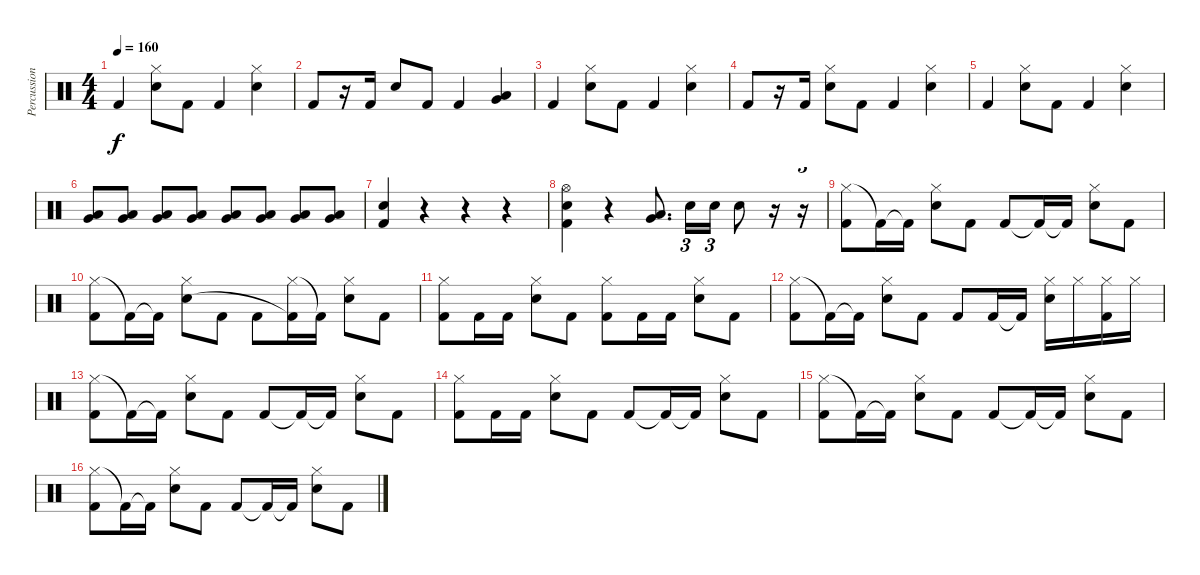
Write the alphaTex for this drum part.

\track ("Percussion" "Percussion") {instrument percussion}
\staff {score}
\articulation defaults
\ts (4 4)
\tempo 160
\clef neutral
\ks c "Kick (hit) 2".4{dy f}
("Hi-Hat (closed)" "Snare (hit) 2").8 "Kick (hit) 2".8 "Kick (hit) 2".4 ("Hi-Hat (closed)" "Snare (hit) 2").4 |
"Kick (hit) 2".8 r.16 "Kick (hit) 2".16 "Snare (hit) 2".8 "Kick (hit) 2".8 "Kick (hit) 2".4 ("Low Tom (hit)" "Very Low Tom (hit)").4 |
"Kick (hit) 2".4 ("Hi-Hat (closed)" "Snare (hit) 2").8 "Kick (hit) 2".8 "Kick (hit) 2".4 ("Hi-Hat (closed)" "Snare (hit) 2").4 |
"Kick (hit) 2".8 r.16 "Kick (hit) 2".16 ("Hi-Hat (closed)" "Snare (hit) 2").8 "Kick (hit) 2".8 "Kick (hit) 2".4 ("Hi-Hat (closed)" "Snare (hit) 2").4 |
"Kick (hit) 2".4 ("Hi-Hat (closed)" "Snare (hit) 2").8 "Kick (hit) 2".8 "Kick (hit) 2".4 ("Hi-Hat (closed)" "Snare (hit) 2").4 |
("Very Low Tom (hit)" "Low Floor Tom (hit)").8 ("Very Low Tom (hit)" "Low Floor Tom (hit)").8 ("Very Low Tom (hit)" "Low Floor Tom (hit)").8 ("Very Low Tom (hit)" "Low Floor Tom (hit)").8 ("Very Low Tom (hit)" "Low Floor Tom (hit)").8 ("Very Low Tom (hit)" "Low Floor Tom (hit)").8 ("Very Low Tom (hit)" "Low Floor Tom (hit)").8 ("Very Low Tom (hit)" "Low Floor Tom (hit)").8 |
("Kick (hit) 2" "Snare (hit) 2").4 r.4 r.4 r.4 |
("Hi-Hat (open)" "Kick (hit) 2" "Snare (hit) 2").4 r.4 ("Very Low Tom (hit)" "Low Floor Tom (hit)").8{d} "Snare (hit) 2".16{tu (3 2)} "Snare (hit) 2".16{tu (3 2)} "Snare (hit) 2".8 r.16 r.16{tu (3 2)} |
("Hi-Hat (closed)" "Kick (hit) 2").8 "Kick (hit) 2"{t}.16 "Kick (hit) 2"{t}.16 ("Hi-Hat (closed)" "Snare (hit) 2").8 "Kick (hit) 2".8 "Kick (hit) 2".8 "Kick (hit) 2"{t}.16 "Kick (hit) 2"{t}.16 ("Hi-Hat (closed)" "Snare (hit) 2").8 "Kick (hit) 2".8 |
("Hi-Hat (closed)" "Kick (hit) 2").8 "Kick (hit) 2"{t}.16 "Kick (hit) 2"{t}.16 ("Hi-Hat (closed)" "Snare (hit) 2").8 "Kick (hit) 2".8 "Kick (hit) 2".8 ("Hi-Hat (closed)" "Kick (hit) 2"{t}).16 "Kick (hit) 2"{t}.16 ("Hi-Hat (closed)" "Snare (hit) 2").8 "Kick (hit) 2".8 |
("Hi-Hat (closed)" "Kick (hit) 2").8 "Kick (hit) 2".16 "Kick (hit) 2".16 ("Hi-Hat (closed)" "Snare (hit) 2").8 "Kick (hit) 2".8 ("Hi-Hat (closed)" "Kick (hit) 2").8 "Kick (hit) 2".16 "Kick (hit) 2".16 ("Hi-Hat (closed)" "Snare (hit) 2").8 "Kick (hit) 2".8 |
("Hi-Hat (closed)" "Kick (hit) 2").8 "Kick (hit) 2"{t}.16 "Kick (hit) 2"{t}.16 ("Hi-Hat (closed)" "Snare (hit) 2").8 "Kick (hit) 2".8 "Kick (hit) 2".8 "Kick (hit) 2".16 "Kick (hit) 2"{t}.16 ("Hi-Hat (closed)" "Snare (hit) 2").16 "Hi-Hat (closed)".16 ("Hi-Hat (closed)" "Kick (hit) 2").16 "Hi-Hat (closed)".16 |
("Hi-Hat (closed)" "Kick (hit) 2").8 "Kick (hit) 2"{t}.16 "Kick (hit) 2"{t}.16 ("Hi-Hat (closed)" "Snare (hit) 2").8 "Kick (hit) 2".8 "Kick (hit) 2".8 "Kick (hit) 2"{t}.16 "Kick (hit) 2"{t}.16 ("Hi-Hat (closed)" "Snare (hit) 2").8 "Kick (hit) 2".8 |
("Hi-Hat (closed)" "Kick (hit) 2").8 "Kick (hit) 2".16 "Kick (hit) 2".16 ("Hi-Hat (closed)" "Snare (hit) 2").8 "Kick (hit) 2".8 "Kick (hit) 2".8 "Kick (hit) 2"{t}.16 "Kick (hit) 2"{t}.16 ("Hi-Hat (closed)" "Snare (hit) 2").8 "Kick (hit) 2".8 |
("Hi-Hat (closed)" "Kick (hit) 2").8 "Kick (hit) 2"{t}.16 "Kick (hit) 2"{t}.16 ("Hi-Hat (closed)" "Snare (hit) 2").8 "Kick (hit) 2".8 "Kick (hit) 2".8 "Kick (hit) 2"{t}.16 "Kick (hit) 2"{t}.16 ("Hi-Hat (closed)" "Snare (hit) 2").8 "Kick (hit) 2".8 |
("Hi-Hat (closed)" "Kick (hit) 2").8 "Kick (hit) 2"{t}.16 "Kick (hit) 2"{t}.16 ("Hi-Hat (closed)" "Snare (hit) 2").8 "Kick (hit) 2".8 "Kick (hit) 2".8 "Kick (hit) 2"{t}.16 "Kick (hit) 2"{t}.16 ("Hi-Hat (closed)" "Snare (hit) 2").8 "Kick (hit) 2".8
